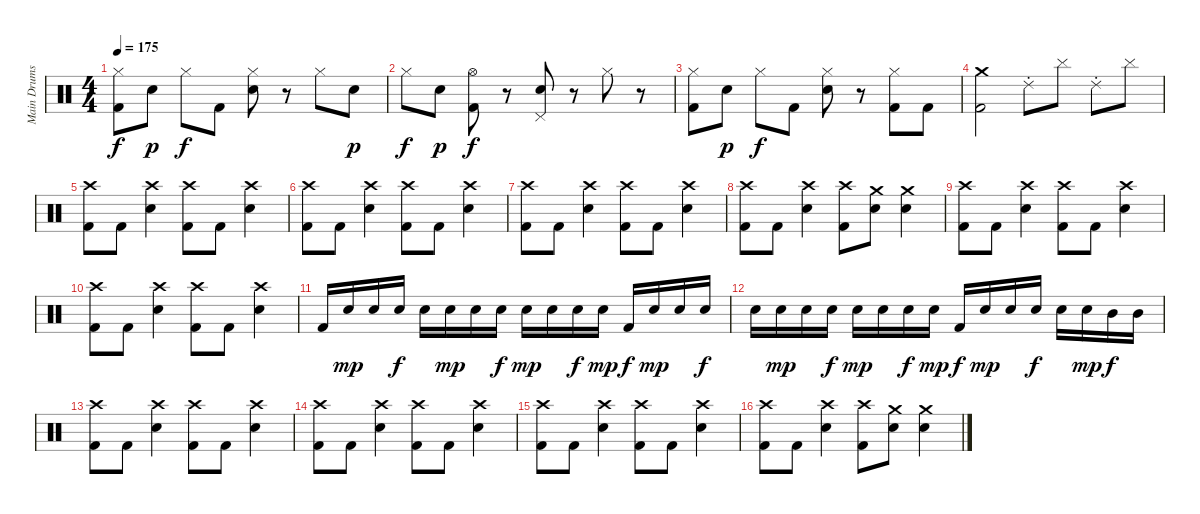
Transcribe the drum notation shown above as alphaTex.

\track ("Main Drums" "Main Drums") {instrument percussion}
\staff {score}
\articulation defaults
\ts (4 4)
\tempo 175
\clef neutral
\ks c
("Hi-Hat (closed)" "Kick (hit) 2").8{dy f} "Electric Snare (hit)".8{dy p} "Hi-Hat (closed)".8{dy f} "Kick (hit) 2".8 ("Hi-Hat (closed)" "Electric Snare (hit)").8 r.8 "Hi-Hat (closed)".8 "Electric Snare (hit)".8{dy p} |
"Hi-Hat (closed)".8{dy f} "Electric Snare (hit)".8{dy p} ("Hi-Hat (open)" "Kick (hit) 2").8{dy f} r.8 ("Pedal Hi-Hat (hit)" "Electric Snare (hit)").8 r.8 "Hi-Hat (closed)".8 r.8 |
("Hi-Hat (closed)" "Kick (hit) 2").8 "Electric Snare (hit)".8{dy p} "Hi-Hat (closed)".8{dy f} "Kick (hit) 2".8 ("Hi-Hat (closed)" "Electric Snare (hit)").8 r.8 ("Hi-Hat (closed)" "Kick (hit) 2").8 "Kick (hit) 2".8 |
("Crash medium (hit)" "Kick (hit) 2").2 "Ride (choke) 2".8 "Cymbal (hit)".8 "Ride (choke) 2".8 "Cymbal (hit)".8 |
("Crash high (hit)" "Kick (hit) 2").8 "Kick (hit) 2".8 ("Crash high (hit)" "Electric Snare (hit)").4 ("Crash high (hit)" "Kick (hit) 2").8 "Kick (hit) 2".8 ("Crash high (hit)" "Electric Snare (hit)").4 |
("Crash high (hit)" "Kick (hit) 2").8 "Kick (hit) 2".8 ("Crash high (hit)" "Electric Snare (hit)").4 ("Crash high (hit)" "Kick (hit) 2").8 "Kick (hit) 2".8 ("Crash high (hit)" "Electric Snare (hit)").4 |
("Crash high (hit)" "Kick (hit) 2").8 "Kick (hit) 2".8 ("Crash high (hit)" "Electric Snare (hit)").4 ("Crash high (hit)" "Kick (hit) 2").8 "Kick (hit) 2".8 ("Crash high (hit)" "Electric Snare (hit)").4 |
("Crash high (hit)" "Kick (hit) 2").8 "Kick (hit) 2".8 ("Crash high (hit)" "Electric Snare (hit)").4 ("Crash high (hit)" "Kick (hit) 2").8 ("Crash medium (hit)" "Electric Snare (hit)").8 ("Crash medium (hit)" "Electric Snare (hit)").4 |
("Crash high (hit)" "Kick (hit) 2").8 "Kick (hit) 2".8 ("Crash high (hit)" "Electric Snare (hit)").4 ("Crash high (hit)" "Kick (hit) 2").8 "Kick (hit) 2".8 ("Crash high (hit)" "Electric Snare (hit)").4 |
("Crash high (hit)" "Kick (hit) 2").8 "Kick (hit) 2".8 ("Crash high (hit)" "Electric Snare (hit)").4 ("Crash high (hit)" "Kick (hit) 2").8 "Kick (hit) 2".8 ("Crash high (hit)" "Electric Snare (hit)").4 |
"Kick (hit) 2".16 "Electric Snare (hit)".16{dy mp} "Electric Snare (hit)".16 "Electric Snare (hit)".16{dy f} "Electric Snare (hit)".16 "Electric Snare (hit)".16{dy mp} "Electric Snare (hit)".16 "Electric Snare (hit)".16{dy f} "Electric Snare (hit)".16{dy mp} "Electric Snare (hit)".16 "Electric Snare (hit)".16{dy f} "Electric Snare (hit)".16{dy mp} "Kick (hit) 2".16{dy f} "Electric Snare (hit)".16{dy mp} "Electric Snare (hit)".16 "Electric Snare (hit)".16{dy f} |
"Electric Snare (hit)".16 "Electric Snare (hit)".16{dy mp} "Electric Snare (hit)".16 "Electric Snare (hit)".16{dy f} "Electric Snare (hit)".16{dy mp} "Electric Snare (hit)".16 "Electric Snare (hit)".16{dy f} "Electric Snare (hit)".16{dy mp} "Kick (hit) 2".16{dy f} "Electric Snare (hit)".16{dy mp} "Electric Snare (hit)".16 "Electric Snare (hit)".16{dy f} "Electric Snare (hit)".16 "Electric Snare (hit)".16{dy mp} "Mid Tom (hit)".16{dy f} "Mid Tom (hit)".16 |
("Crash high (hit)" "Kick (hit) 2").8 "Kick (hit) 2".8 ("Crash high (hit)" "Electric Snare (hit)").4 ("Crash high (hit)" "Kick (hit) 2").8 "Kick (hit) 2".8 ("Crash high (hit)" "Electric Snare (hit)").4 |
("Crash high (hit)" "Kick (hit) 2").8 "Kick (hit) 2".8 ("Crash high (hit)" "Electric Snare (hit)").4 ("Crash high (hit)" "Kick (hit) 2").8 "Kick (hit) 2".8 ("Crash high (hit)" "Electric Snare (hit)").4 |
("Crash high (hit)" "Kick (hit) 2").8 "Kick (hit) 2".8 ("Crash high (hit)" "Electric Snare (hit)").4 ("Crash high (hit)" "Kick (hit) 2").8 "Kick (hit) 2".8 ("Crash high (hit)" "Electric Snare (hit)").4 |
("Crash high (hit)" "Kick (hit) 2").8 "Kick (hit) 2".8 ("Crash high (hit)" "Electric Snare (hit)").4 ("Crash high (hit)" "Kick (hit) 2").8 ("Crash medium (hit)" "Electric Snare (hit)").8 ("Crash medium (hit)" "Electric Snare (hit)").4
